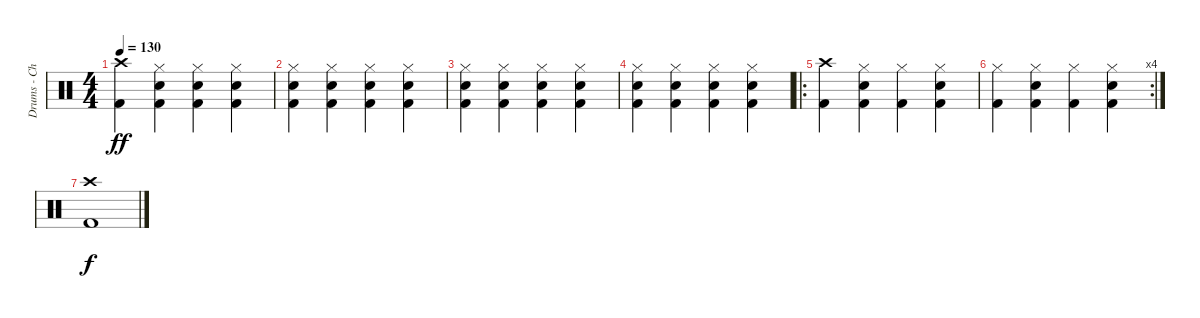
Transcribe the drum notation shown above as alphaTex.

\track ("Drums - Chris Frantz" "Drums - Ch") {instrument percussion}
\staff {score}
\articulation defaults
\ts (4 4)
\tempo 130
\clef neutral
\ks c
("Kick (hit) 2" "Crash high (hit)").4{dy ff} ("Kick (hit) 2" "Snare (hit) 2" "Hi-Hat (closed)").4 ("Kick (hit) 2" "Snare (hit) 2" "Hi-Hat (closed)").4 ("Kick (hit) 2" "Snare (hit) 2" "Hi-Hat (closed)").4 |
("Kick (hit) 2" "Snare (hit) 2" "Hi-Hat (closed)").4 ("Kick (hit) 2" "Snare (hit) 2" "Hi-Hat (closed)").4 ("Kick (hit) 2" "Snare (hit) 2" "Hi-Hat (closed)").4 ("Kick (hit) 2" "Snare (hit) 2" "Hi-Hat (closed)").4 |
("Kick (hit) 2" "Snare (hit) 2" "Hi-Hat (closed)").4 ("Kick (hit) 2" "Snare (hit) 2" "Hi-Hat (closed)").4 ("Kick (hit) 2" "Snare (hit) 2" "Hi-Hat (closed)").4 ("Kick (hit) 2" "Snare (hit) 2" "Hi-Hat (closed)").4 |
("Kick (hit) 2" "Snare (hit) 2" "Hi-Hat (closed)").4 ("Kick (hit) 2" "Snare (hit) 2" "Hi-Hat (closed)").4 ("Kick (hit) 2" "Snare (hit) 2" "Hi-Hat (closed)").4 ("Kick (hit) 2" "Snare (hit) 2" "Hi-Hat (closed)").4 |
\ro
("Kick (hit) 2" "Crash high (hit)").4 ("Kick (hit) 2" "Snare (hit) 2" "Hi-Hat (closed)").4 ("Kick (hit) 2" "Hi-Hat (closed)").4 ("Kick (hit) 2" "Snare (hit) 2" "Hi-Hat (closed)").4 |
\rc 4
("Kick (hit) 2" "Hi-Hat (closed)").4 ("Kick (hit) 2" "Snare (hit) 2" "Hi-Hat (closed)").4 ("Kick (hit) 2" "Hi-Hat (closed)").4 ("Kick (hit) 2" "Snare (hit) 2" "Hi-Hat (closed)").4 |
("Kick (hit) 2" "Crash high (hit)").1{dy f}
